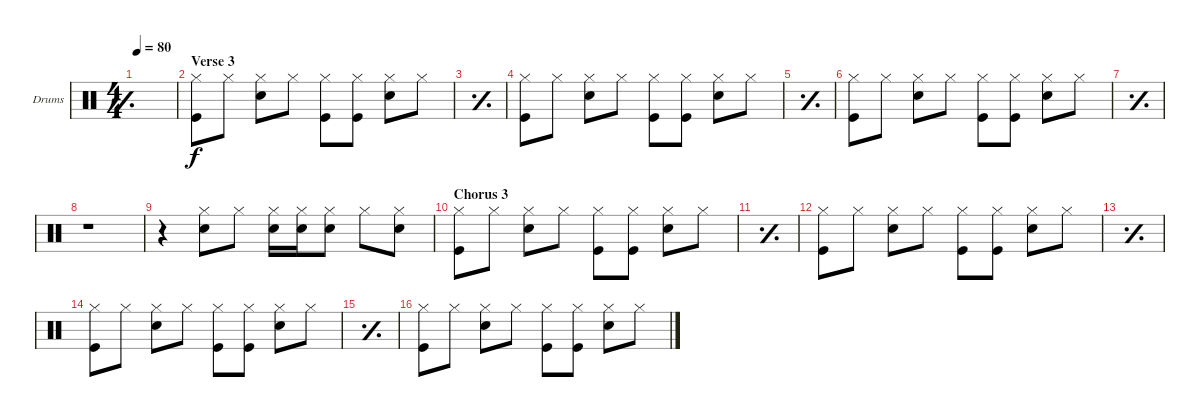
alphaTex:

\defaultSystemsLayout 4
\bracketExtendMode groupsimilarinstruments
\firstSystemTrackNameOrientation horizontal
\otherSystemsTrackNameOrientation horizontal
\chordDiagramsInScore
\track ("Drumkit" "Drums") {instrument percussion}
\staff {score}
\articulation defaults
\ts (4 4)
\tempo 80
\clef neutral
\simile simple
\ks c
|
\section ("" "Verse 3")
("Hi-Hat (closed)" "Kick (hit)").8 "Hi-Hat (closed)".8 ("Hi-Hat (closed)" "Snare (hit) 2").8 "Hi-Hat (closed)".8 ("Hi-Hat (closed)" "Kick (hit)").8 ("Hi-Hat (closed)" "Kick (hit)").8 ("Hi-Hat (closed)" "Snare (hit) 2").8 "Hi-Hat (closed)".8 |
\simile simple
|
\simile none
("Hi-Hat (closed)" "Kick (hit)").8 "Hi-Hat (closed)".8 ("Hi-Hat (closed)" "Snare (hit) 2").8 "Hi-Hat (closed)".8 ("Hi-Hat (closed)" "Kick (hit)").8 ("Hi-Hat (closed)" "Kick (hit)").8 ("Hi-Hat (closed)" "Snare (hit) 2").8 "Hi-Hat (closed)".8 |
\simile simple
|
\simile none
("Hi-Hat (closed)" "Kick (hit)").8 "Hi-Hat (closed)".8 ("Hi-Hat (closed)" "Snare (hit) 2").8 "Hi-Hat (closed)".8 ("Hi-Hat (closed)" "Kick (hit)").8 ("Hi-Hat (closed)" "Kick (hit)").8 ("Hi-Hat (closed)" "Snare (hit) 2").8 "Hi-Hat (closed)".8 |
\simile simple
|
\simile none
r.1 |
r.4 ("Hi-Hat (closed)" "Snare (hit) 2").8 "Hi-Hat (closed)".8 ("Hi-Hat (closed)" "Snare (hit) 2").16 ("Hi-Hat (closed)" "Snare (hit) 2").16 ("Hi-Hat (closed)" "Snare (hit) 2").8 "Hi-Hat (closed)".8 ("Hi-Hat (closed)" "Snare (hit) 2").8 |
\section ("" "Chorus 3")
("Hi-Hat (closed)" "Kick (hit)").8 "Hi-Hat (closed)".8 ("Hi-Hat (closed)" "Snare (hit) 2").8 "Hi-Hat (closed)".8 ("Hi-Hat (closed)" "Kick (hit)").8 ("Hi-Hat (closed)" "Kick (hit)").8 ("Hi-Hat (closed)" "Snare (hit) 2").8 "Hi-Hat (closed)".8 |
\simile simple
|
\simile none
("Hi-Hat (closed)" "Kick (hit)").8 "Hi-Hat (closed)".8 ("Hi-Hat (closed)" "Snare (hit) 2").8 "Hi-Hat (closed)".8 ("Hi-Hat (closed)" "Kick (hit)").8 ("Hi-Hat (closed)" "Kick (hit)").8 ("Hi-Hat (closed)" "Snare (hit) 2").8 "Hi-Hat (closed)".8 |
\simile simple
|
\simile none
("Hi-Hat (closed)" "Kick (hit)").8 "Hi-Hat (closed)".8 ("Hi-Hat (closed)" "Snare (hit) 2").8 "Hi-Hat (closed)".8 ("Hi-Hat (closed)" "Kick (hit)").8 ("Hi-Hat (closed)" "Kick (hit)").8 ("Hi-Hat (closed)" "Snare (hit) 2").8 "Hi-Hat (closed)".8 |
\simile simple
|
\simile none
("Hi-Hat (closed)" "Kick (hit)").8 "Hi-Hat (closed)".8 ("Hi-Hat (closed)" "Snare (hit) 2").8 "Hi-Hat (closed)".8 ("Hi-Hat (closed)" "Kick (hit)").8 ("Hi-Hat (closed)" "Kick (hit)").8 ("Hi-Hat (closed)" "Snare (hit) 2").8 "Hi-Hat (closed)".8
